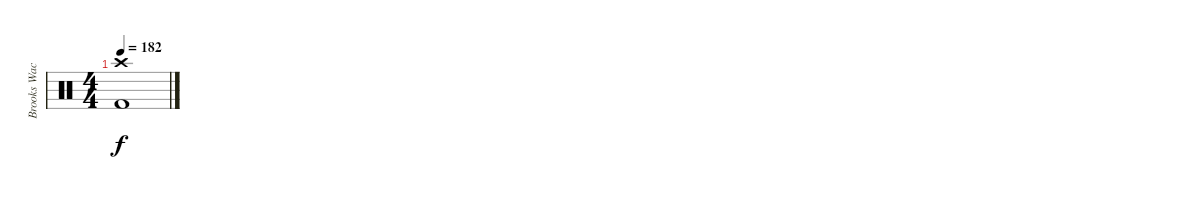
\track ("Brooks Wackerman" "Brooks Wac") {instrument percussion}
\staff {score}
\articulation defaults
\ts (4 4)
\tempo 182
\clef neutral
\ks c
("Crash high (hit)" "Kick (hit) 2").1{dy f}
